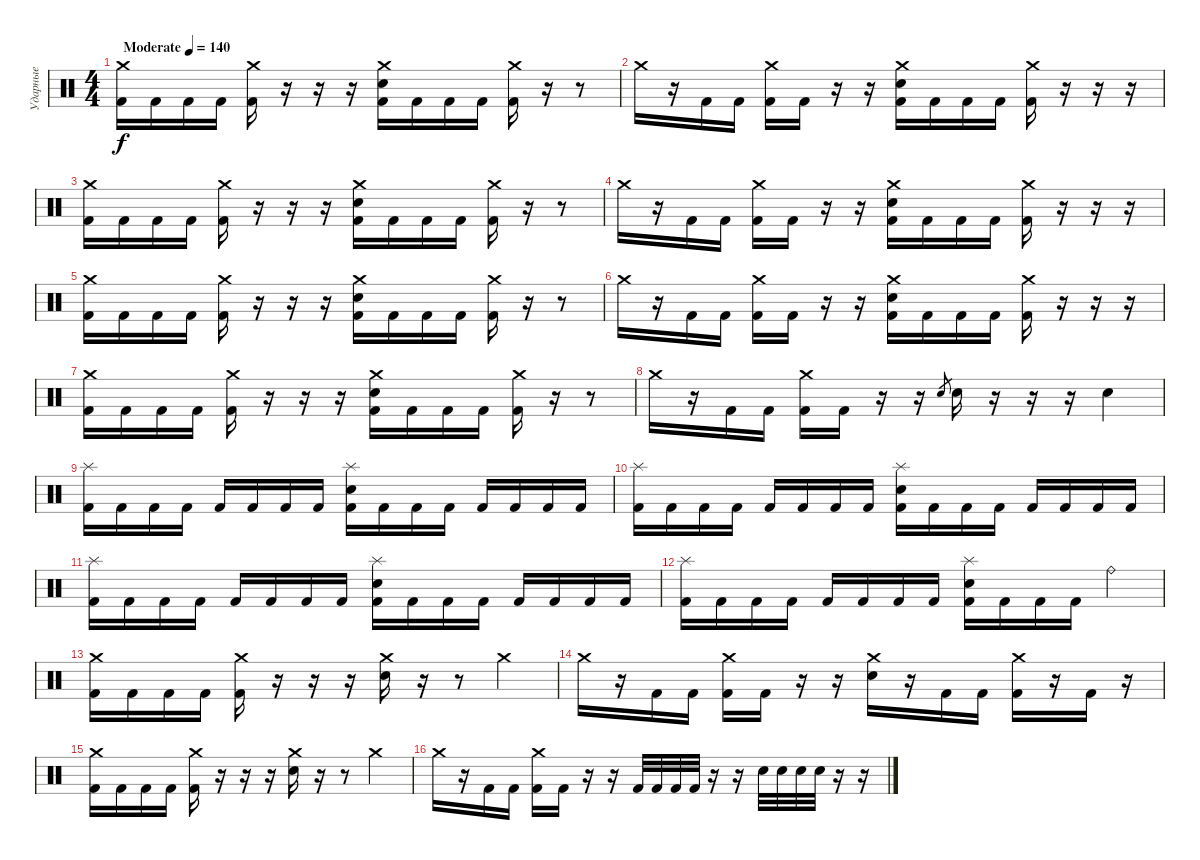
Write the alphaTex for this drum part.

\track ("Ударные" "Ударные") {instrument percussion}
\staff {score}
\articulation defaults
\ts (4 4)
\tempo (140 "Moderate")
\clef neutral
\ks c
("Crash medium (hit)" "Kick (hit) 2").16{dy f} "Kick (hit) 2".16 "Kick (hit) 2".16 "Kick (hit) 2".16 ("Crash medium (hit)" "Kick (hit) 2").16 r.16 r.16 r.16 ("Crash medium (hit)" "Electric Snare (hit)" "Kick (hit) 2").16 "Kick (hit) 2".16 "Kick (hit) 2".16 "Kick (hit) 2".16 ("Crash medium (hit)" "Kick (hit) 2").16 r.16 r.8 |
"Crash medium (hit)".16 r.16 "Kick (hit) 2".16 "Kick (hit) 2".16 ("Crash medium (hit)" "Kick (hit) 2").16 "Kick (hit) 2".16 r.16 r.16 ("Crash medium (hit)" "Electric Snare (hit)" "Kick (hit) 2").16 "Kick (hit) 2".16 "Kick (hit) 2".16 "Kick (hit) 2".16 ("Crash medium (hit)" "Kick (hit) 2").16 r.16 r.16 r.16 |
("Crash medium (hit)" "Kick (hit) 2").16 "Kick (hit) 2".16 "Kick (hit) 2".16 "Kick (hit) 2".16 ("Crash medium (hit)" "Kick (hit) 2").16 r.16 r.16 r.16 ("Crash medium (hit)" "Electric Snare (hit)" "Kick (hit) 2").16 "Kick (hit) 2".16 "Kick (hit) 2".16 "Kick (hit) 2".16 ("Crash medium (hit)" "Kick (hit) 2").16 r.16 r.8 |
"Crash medium (hit)".16 r.16 "Kick (hit) 2".16 "Kick (hit) 2".16 ("Crash medium (hit)" "Kick (hit) 2").16 "Kick (hit) 2".16 r.16 r.16 ("Crash medium (hit)" "Electric Snare (hit)" "Kick (hit) 2").16 "Kick (hit) 2".16 "Kick (hit) 2".16 "Kick (hit) 2".16 ("Crash medium (hit)" "Kick (hit) 2").16 r.16 r.16 r.16 |
("Crash medium (hit)" "Kick (hit) 2").16 "Kick (hit) 2".16 "Kick (hit) 2".16 "Kick (hit) 2".16 ("Crash medium (hit)" "Kick (hit) 2").16 r.16 r.16 r.16 ("Crash medium (hit)" "Electric Snare (hit)" "Kick (hit) 2").16 "Kick (hit) 2".16 "Kick (hit) 2".16 "Kick (hit) 2".16 ("Crash medium (hit)" "Kick (hit) 2").16 r.16 r.8 |
"Crash medium (hit)".16 r.16 "Kick (hit) 2".16 "Kick (hit) 2".16 ("Crash medium (hit)" "Kick (hit) 2").16 "Kick (hit) 2".16 r.16 r.16 ("Crash medium (hit)" "Electric Snare (hit)" "Kick (hit) 2").16 "Kick (hit) 2".16 "Kick (hit) 2".16 "Kick (hit) 2".16 ("Crash medium (hit)" "Kick (hit) 2").16 r.16 r.16 r.16 |
("Crash medium (hit)" "Kick (hit) 2").16 "Kick (hit) 2".16 "Kick (hit) 2".16 "Kick (hit) 2".16 ("Crash medium (hit)" "Kick (hit) 2").16 r.16 r.16 r.16 ("Crash medium (hit)" "Electric Snare (hit)" "Kick (hit) 2").16 "Kick (hit) 2".16 "Kick (hit) 2".16 "Kick (hit) 2".16 ("Crash medium (hit)" "Kick (hit) 2").16 r.16 r.8 |
"Crash medium (hit)".16 r.16 "Kick (hit) 2".16 "Kick (hit) 2".16 ("Crash medium (hit)" "Kick (hit) 2").16 "Kick (hit) 2".16 r.16 r.16 "Electric Snare (hit)".8{gr} "Electric Snare (hit)".16 r.16 r.16 r.16 "Electric Snare (hit)".4 |
("Splash (hit)" "Kick (hit) 2").16 "Kick (hit) 2".16 "Kick (hit) 2".16 "Kick (hit) 2".16 "Kick (hit) 2".16 "Kick (hit) 2".16 "Kick (hit) 2".16 "Kick (hit) 2".16 ("Splash (hit)" "Electric Snare (hit)" "Kick (hit) 2").16 "Kick (hit) 2".16 "Kick (hit) 2".16 "Kick (hit) 2".16 "Kick (hit) 2".16 "Kick (hit) 2".16 "Kick (hit) 2".16 "Kick (hit) 2".16 |
("Splash (hit)" "Kick (hit) 2").16 "Kick (hit) 2".16 "Kick (hit) 2".16 "Kick (hit) 2".16 "Kick (hit) 2".16 "Kick (hit) 2".16 "Kick (hit) 2".16 "Kick (hit) 2".16 ("Splash (hit)" "Electric Snare (hit)" "Kick (hit) 2").16 "Kick (hit) 2".16 "Kick (hit) 2".16 "Kick (hit) 2".16 "Kick (hit) 2".16 "Kick (hit) 2".16 "Kick (hit) 2".16 "Kick (hit) 2".16 |
("Splash (hit)" "Kick (hit) 2").16 "Kick (hit) 2".16 "Kick (hit) 2".16 "Kick (hit) 2".16 "Kick (hit) 2".16 "Kick (hit) 2".16 "Kick (hit) 2".16 "Kick (hit) 2".16 ("Splash (hit)" "Electric Snare (hit)" "Kick (hit) 2").16 "Kick (hit) 2".16 "Kick (hit) 2".16 "Kick (hit) 2".16 "Kick (hit) 2".16 "Kick (hit) 2".16 "Kick (hit) 2".16 "Kick (hit) 2".16 |
("Splash (hit)" "Kick (hit) 2").16 "Kick (hit) 2".16 "Kick (hit) 2".16 "Kick (hit) 2".16 "Kick (hit) 2".16 "Kick (hit) 2".16 "Kick (hit) 2".16 "Kick (hit) 2".16 ("Splash (hit)" "Electric Snare (hit)" "Kick (hit) 2").16 "Kick (hit) 2".16 "Kick (hit) 2".16 "Kick (hit) 2".16 "Ride (bell)".4 |
("Crash medium (hit)" "Kick (hit) 2").16 "Kick (hit) 2".16 "Kick (hit) 2".16 "Kick (hit) 2".16 ("Crash medium (hit)" "Kick (hit) 2").16 r.16 r.16 r.16 ("Crash medium (hit)" "Electric Snare (hit)").16 r.16 r.8 "Crash medium (hit)".4 |
"Crash medium (hit)".16 r.16 "Kick (hit) 2".16 "Kick (hit) 2".16 ("Crash medium (hit)" "Kick (hit) 2").16 "Kick (hit) 2".16 r.16 r.16 ("Crash medium (hit)" "Electric Snare (hit)").16 r.16 "Kick (hit) 2".16 "Kick (hit) 2".16 ("Crash medium (hit)" "Kick (hit) 2").16 r.16 "Kick (hit) 2".16 r.16 |
("Crash medium (hit)" "Kick (hit) 2").16 "Kick (hit) 2".16 "Kick (hit) 2".16 "Kick (hit) 2".16 ("Crash medium (hit)" "Kick (hit) 2").16 r.16 r.16 r.16 ("Crash medium (hit)" "Electric Snare (hit)").16 r.16 r.8 "Crash medium (hit)".4 |
"Crash medium (hit)".16 r.16 "Kick (hit) 2".16 "Kick (hit) 2".16 ("Crash medium (hit)" "Kick (hit) 2").16 "Kick (hit) 2".16 r.16 r.16 "Kick (hit) 2".32 "Kick (hit) 2".32 "Kick (hit) 2".32 "Kick (hit) 2".32 r.16 r.16 "Electric Snare (hit)".32 "Electric Snare (hit)".32 "Electric Snare (hit)".32 "Electric Snare (hit)".32 r.16 r.16
